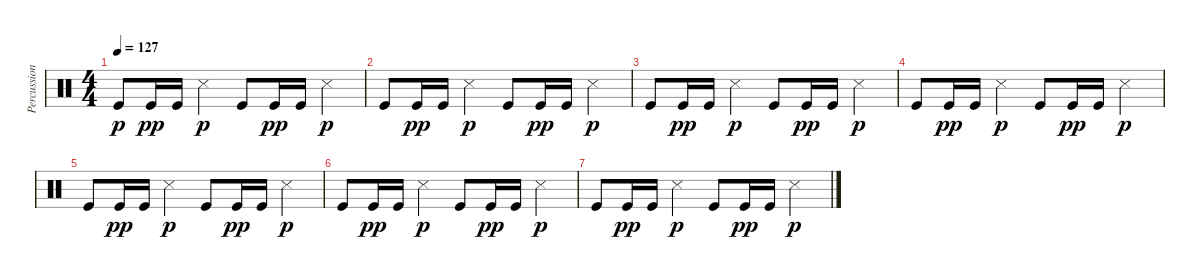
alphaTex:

\track ("Percussion" "Percussion") {instrument percussion}
\staff {score}
\articulation defaults
\ts (4 4)
\tempo 127
\clef neutral
\ks c "Kick (hit)".8{dy p} "Kick (hit)".16{dy pp} "Kick (hit)".16 "Snare (side stick) 3".4{dy p} "Kick (hit)".8 "Kick (hit)".16{dy pp} "Kick (hit)".16 "Snare (side stick) 3".4{dy p}
|
"Kick (hit)".8 "Kick (hit)".16{dy pp} "Kick (hit)".16 "Snare (side stick) 3".4{dy p} "Kick (hit)".8 "Kick (hit)".16{dy pp} "Kick (hit)".16 "Snare (side stick) 3".4{dy p} |
"Kick (hit)".8 "Kick (hit)".16{dy pp} "Kick (hit)".16 "Snare (side stick) 3".4{dy p} "Kick (hit)".8 "Kick (hit)".16{dy pp} "Kick (hit)".16 "Snare (side stick) 3".4{dy p} |
"Kick (hit)".8{volume 2} "Kick (hit)".16{dy pp} "Kick (hit)".16 "Snare (side stick) 3".4{dy p} "Kick (hit)".8 "Kick (hit)".16{dy pp} "Kick (hit)".16 "Snare (side stick) 3".4{dy p} |
"Kick (hit)".8 "Kick (hit)".16{dy pp} "Kick (hit)".16 "Snare (side stick) 3".4{dy p} "Kick (hit)".8 "Kick (hit)".16{dy pp} "Kick (hit)".16 "Snare (side stick) 3".4{dy p} |
"Kick (hit)".8 "Kick (hit)".16{dy pp} "Kick (hit)".16 "Snare (side stick) 3".4{dy p} "Kick (hit)".8 "Kick (hit)".16{dy pp} "Kick (hit)".16 "Snare (side stick) 3".4{dy p} |
"Kick (hit)".8 "Kick (hit)".16{dy pp} "Kick (hit)".16 "Snare (side stick) 3".4{dy p} "Kick (hit)".8 "Kick (hit)".16{dy pp} "Kick (hit)".16 "Snare (side stick) 3".4{dy p}
